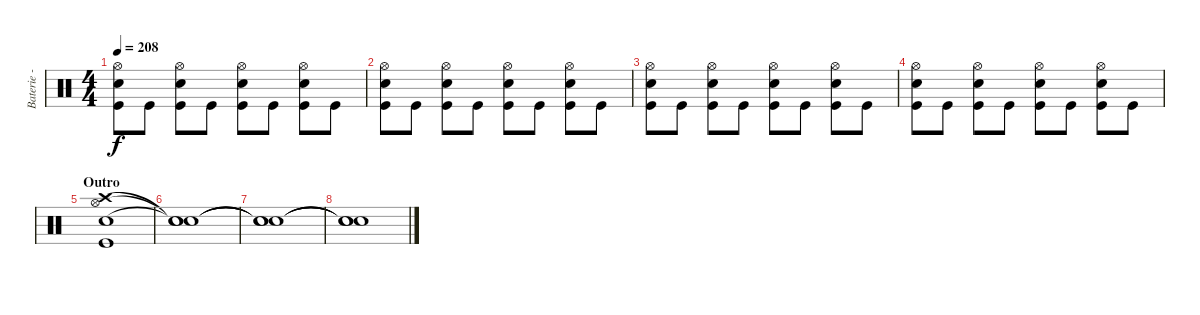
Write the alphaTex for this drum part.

\track ("Baterie - Guillaume" "Baterie - ") {instrument percussion}
\staff {score}
\articulation defaults
\ts (4 4)
\tempo 208
\clef neutral
\ks c
("Hi-Hat (open)" "Electric Snare (hit)" "Kick (hit)").8{dy f} "Kick (hit)".8 ("Hi-Hat (open)" "Electric Snare (hit)" "Kick (hit)").8 "Kick (hit)".8 ("Hi-Hat (open)" "Electric Snare (hit)" "Kick (hit)").8 "Kick (hit)".8 ("Hi-Hat (open)" "Electric Snare (hit)" "Kick (hit)").8 "Kick (hit)".8 |
("Hi-Hat (open)" "Electric Snare (hit)" "Kick (hit)").8 "Kick (hit)".8 ("Hi-Hat (open)" "Electric Snare (hit)" "Kick (hit)").8 "Kick (hit)".8 ("Hi-Hat (open)" "Electric Snare (hit)" "Kick (hit)").8 "Kick (hit)".8 ("Hi-Hat (open)" "Electric Snare (hit)" "Kick (hit)").8 "Kick (hit)".8 |
("Hi-Hat (open)" "Electric Snare (hit)" "Kick (hit)").8 "Kick (hit)".8 ("Hi-Hat (open)" "Electric Snare (hit)" "Kick (hit)").8 "Kick (hit)".8 ("Hi-Hat (open)" "Electric Snare (hit)" "Kick (hit)").8 "Kick (hit)".8 ("Hi-Hat (open)" "Electric Snare (hit)" "Kick (hit)").8 "Kick (hit)".8 |
("Hi-Hat (open)" "Electric Snare (hit)" "Kick (hit)").8 "Kick (hit)".8 ("Hi-Hat (open)" "Electric Snare (hit)" "Kick (hit)").8 "Kick (hit)".8 ("Hi-Hat (open)" "Electric Snare (hit)" "Kick (hit)").8 "Kick (hit)".8 ("Hi-Hat (open)" "Electric Snare (hit)" "Kick (hit)").8 "Kick (hit)".8 |
\section ("" "Outro")
("Hi-Hat (open)" "Crash high (hit)" "Electric Snare (hit)" "Kick (hit)").1 |
("Snare (hit)"{t} "Snare (hit)"{t} "Snare (hit)"{t}).1 |
("Snare (hit)"{t} "Snare (hit)"{t} "Snare (hit)"{t}).1 |
("Snare (hit)"{t} "Snare (hit)"{t} "Snare (hit)"{t}).1
